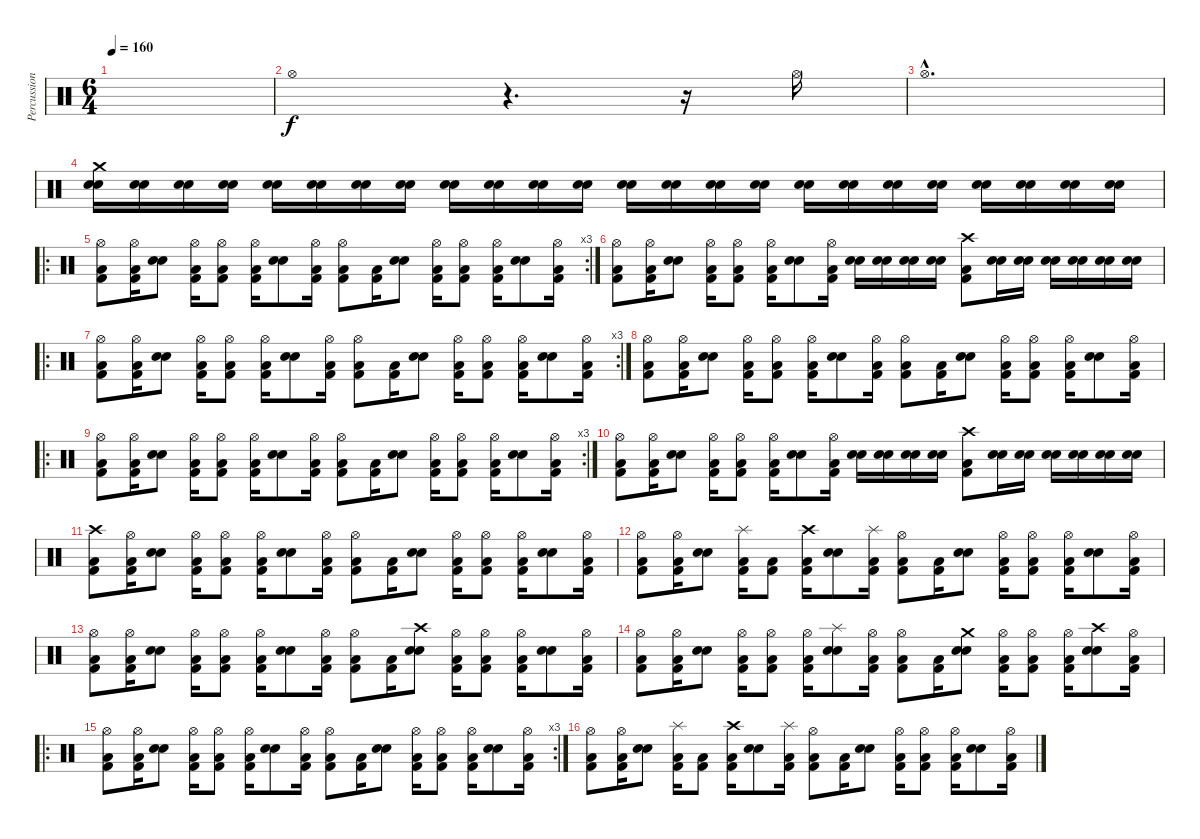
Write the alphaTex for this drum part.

\track ("Percussions" "Percussion") {instrument percussion}
\staff {score}
\articulation defaults
\ts (6 4)
\tempo 160
\clef neutral
\ks c
|
"Hi-Hat (open)".1 r.4{d} r.16 "Hi-Hat (open)".16 |
"Hi-Hat (open)"{hac}.1{d} |
("Crash medium (hit)" "Snare (hit) 2" "Electric Snare (hit)").16 ("Snare (hit) 2" "Electric Snare (hit)").16 ("Snare (hit) 2" "Electric Snare (hit)").16 ("Snare (hit) 2" "Electric Snare (hit)").16 ("Snare (hit) 2" "Electric Snare (hit)").16 ("Snare (hit) 2" "Electric Snare (hit)").16 ("Snare (hit) 2" "Electric Snare (hit)").16 ("Snare (hit) 2" "Electric Snare (hit)").16 ("Snare (hit) 2" "Electric Snare (hit)").16 ("Snare (hit) 2" "Electric Snare (hit)").16 ("Snare (hit) 2" "Electric Snare (hit)").16 ("Snare (hit) 2" "Electric Snare (hit)").16 ("Snare (hit) 2" "Electric Snare (hit)").16 ("Snare (hit) 2" "Electric Snare (hit)").16 ("Snare (hit) 2" "Electric Snare (hit)").16 ("Snare (hit) 2" "Electric Snare (hit)").16 ("Snare (hit) 2" "Electric Snare (hit)").16 ("Snare (hit) 2" "Electric Snare (hit)").16 ("Snare (hit) 2" "Electric Snare (hit)").16 ("Snare (hit) 2" "Electric Snare (hit)").16 ("Snare (hit) 2" "Electric Snare (hit)").16 ("Snare (hit) 2" "Electric Snare (hit)").16 ("Snare (hit) 2" "Electric Snare (hit)").16 ("Snare (hit) 2" "Electric Snare (hit)").16 |
\ro
\rc 3
("Hi-Hat (open)" "Kick (hit) 2" "Low Floor Tom (hit)").8 ("Hi-Hat (open)" "Kick (hit) 2" "Low Floor Tom (hit)").16 ("Snare (hit) 2" "Electric Snare (hit)").8 ("Hi-Hat (open)" "Kick (hit) 2" "Low Floor Tom (hit)").16 ("Hi-Hat (open)" "Kick (hit) 2" "Low Floor Tom (hit)").8 ("Hi-Hat (open)" "Kick (hit) 2" "Low Floor Tom (hit)").16 ("Snare (hit) 2" "Electric Snare (hit)").8 ("Hi-Hat (open)" "Kick (hit) 2" "Low Floor Tom (hit)").16 ("Hi-Hat (open)" "Kick (hit) 2" "Low Floor Tom (hit)").8 ("Kick (hit) 2" "Low Floor Tom (hit)").16 ("Snare (hit) 2" "Electric Snare (hit)").8 ("Hi-Hat (open)" "Kick (hit) 2" "Low Floor Tom (hit)").16 ("Hi-Hat (open)" "Kick (hit) 2" "Low Floor Tom (hit)").8 ("Hi-Hat (open)" "Kick (hit) 2" "Low Floor Tom (hit)").16 ("Snare (hit) 2" "Electric Snare (hit)").8 ("Hi-Hat (open)" "Kick (hit) 2" "Low Floor Tom (hit)").16 |
("Hi-Hat (open)" "Kick (hit) 2" "Low Floor Tom (hit)").8 ("Hi-Hat (open)" "Kick (hit) 2" "Low Floor Tom (hit)").16 ("Snare (hit) 2" "Electric Snare (hit)").8 ("Hi-Hat (open)" "Kick (hit) 2" "Low Floor Tom (hit)").16 ("Hi-Hat (open)" "Kick (hit) 2" "Low Floor Tom (hit)").8 ("Hi-Hat (open)" "Kick (hit) 2" "Low Floor Tom (hit)").16 ("Snare (hit) 2" "Electric Snare (hit)").8 ("Hi-Hat (open)" "Kick (hit) 2" "Low Floor Tom (hit)").16 ("Snare (hit) 2" "Electric Snare (hit)").16 ("Snare (hit) 2" "Electric Snare (hit)").16 ("Snare (hit) 2" "Electric Snare (hit)").16 ("Snare (hit) 2" "Electric Snare (hit)").16 ("Crash high (hit)" "Kick (hit) 2" "Low Floor Tom (hit)").8 ("Snare (hit) 2" "Snare (hit) 2").16 ("Snare (hit) 2" "Snare (hit) 2").16 ("Snare (hit) 2" "Snare (hit) 2").16 ("Snare (hit) 2" "Snare (hit) 2").16 ("Snare (hit) 2" "Snare (hit) 2").16 ("Snare (hit) 2" "Snare (hit) 2").16 |
\ro
\rc 3
("Hi-Hat (open)" "Kick (hit) 2" "Low Floor Tom (hit)").8 ("Hi-Hat (open)" "Kick (hit) 2" "Low Floor Tom (hit)").16 ("Snare (hit) 2" "Electric Snare (hit)").8 ("Hi-Hat (open)" "Kick (hit) 2" "Low Floor Tom (hit)").16 ("Hi-Hat (open)" "Kick (hit) 2" "Low Floor Tom (hit)").8 ("Hi-Hat (open)" "Kick (hit) 2" "Low Floor Tom (hit)").16 ("Snare (hit) 2" "Electric Snare (hit)").8 ("Hi-Hat (open)" "Kick (hit) 2" "Low Floor Tom (hit)").16 ("Hi-Hat (open)" "Kick (hit) 2" "Low Floor Tom (hit)").8 ("Kick (hit) 2" "Low Floor Tom (hit)").16 ("Snare (hit) 2" "Electric Snare (hit)").8 ("Hi-Hat (open)" "Kick (hit) 2" "Low Floor Tom (hit)").16 ("Hi-Hat (open)" "Kick (hit) 2" "Low Floor Tom (hit)").8 ("Hi-Hat (open)" "Kick (hit) 2" "Low Floor Tom (hit)").16 ("Snare (hit) 2" "Electric Snare (hit)").8 ("Hi-Hat (open)" "Kick (hit) 2" "Low Floor Tom (hit)").16 |
("Hi-Hat (open)" "Kick (hit) 2" "Low Floor Tom (hit)").8 ("Hi-Hat (open)" "Kick (hit) 2" "Low Floor Tom (hit)").16 ("Snare (hit) 2" "Electric Snare (hit)").8 ("Hi-Hat (open)" "Kick (hit) 2" "Low Floor Tom (hit)").16 ("Hi-Hat (open)" "Kick (hit) 2" "Low Floor Tom (hit)").8 ("Hi-Hat (open)" "Kick (hit) 2" "Low Floor Tom (hit)").16 ("Snare (hit) 2" "Electric Snare (hit)").8 ("Hi-Hat (open)" "Kick (hit) 2" "Low Floor Tom (hit)").16 ("Hi-Hat (open)" "Kick (hit) 2" "Low Floor Tom (hit)").8 ("Kick (hit) 2" "Low Floor Tom (hit)").16 ("Snare (hit) 2" "Electric Snare (hit)").8 ("Hi-Hat (open)" "Kick (hit) 2" "Low Floor Tom (hit)").16 ("Hi-Hat (open)" "Kick (hit) 2" "Low Floor Tom (hit)").8 ("Hi-Hat (open)" "Kick (hit) 2" "Low Floor Tom (hit)").16 ("Snare (hit) 2" "Electric Snare (hit)").8 ("Hi-Hat (open)" "Kick (hit) 2" "Low Floor Tom (hit)").16 |
\ro
\rc 3
("Hi-Hat (open)" "Kick (hit) 2" "Low Floor Tom (hit)").8 ("Hi-Hat (open)" "Kick (hit) 2" "Low Floor Tom (hit)").16 ("Snare (hit) 2" "Electric Snare (hit)").8 ("Hi-Hat (open)" "Kick (hit) 2" "Low Floor Tom (hit)").16 ("Hi-Hat (open)" "Kick (hit) 2" "Low Floor Tom (hit)").8 ("Hi-Hat (open)" "Kick (hit) 2" "Low Floor Tom (hit)").16 ("Snare (hit) 2" "Electric Snare (hit)").8 ("Hi-Hat (open)" "Kick (hit) 2" "Low Floor Tom (hit)").16 ("Hi-Hat (open)" "Kick (hit) 2" "Low Floor Tom (hit)").8 ("Kick (hit) 2" "Low Floor Tom (hit)").16 ("Snare (hit) 2" "Electric Snare (hit)").8 ("Hi-Hat (open)" "Kick (hit) 2" "Low Floor Tom (hit)").16 ("Hi-Hat (open)" "Kick (hit) 2" "Low Floor Tom (hit)").8 ("Hi-Hat (open)" "Kick (hit) 2" "Low Floor Tom (hit)").16 ("Snare (hit) 2" "Electric Snare (hit)").8 ("Hi-Hat (open)" "Kick (hit) 2" "Low Floor Tom (hit)").16 |
("Hi-Hat (open)" "Kick (hit) 2" "Low Floor Tom (hit)").8 ("Hi-Hat (open)" "Kick (hit) 2" "Low Floor Tom (hit)").16 ("Snare (hit) 2" "Electric Snare (hit)").8 ("Hi-Hat (open)" "Kick (hit) 2" "Low Floor Tom (hit)").16 ("Hi-Hat (open)" "Kick (hit) 2" "Low Floor Tom (hit)").8 ("Hi-Hat (open)" "Kick (hit) 2" "Low Floor Tom (hit)").16 ("Snare (hit) 2" "Electric Snare (hit)").8 ("Hi-Hat (open)" "Kick (hit) 2" "Low Floor Tom (hit)").16 ("Snare (hit) 2" "Electric Snare (hit)").16 ("Snare (hit) 2" "Electric Snare (hit)").16 ("Snare (hit) 2" "Electric Snare (hit)").16 ("Snare (hit) 2" "Electric Snare (hit)").16 ("Crash high (hit)" "Kick (hit) 2" "Low Floor Tom (hit)").8 ("Snare (hit) 2" "Snare (hit) 2").16 ("Snare (hit) 2" "Snare (hit) 2").16 ("Snare (hit) 2" "Snare (hit) 2").16 ("Snare (hit) 2" "Snare (hit) 2").16 ("Snare (hit) 2" "Snare (hit) 2").16 ("Snare (hit) 2" "Snare (hit) 2").16 |
("Crash high (hit)" "Kick (hit) 2" "Low Floor Tom (hit)").8 ("Hi-Hat (open)" "Kick (hit) 2" "Low Floor Tom (hit)").16 ("Snare (hit) 2" "Electric Snare (hit)").8 ("Hi-Hat (open)" "Kick (hit) 2" "Low Floor Tom (hit)").16 ("Hi-Hat (open)" "Kick (hit) 2" "Low Floor Tom (hit)").8 ("Hi-Hat (open)" "Kick (hit) 2" "Low Floor Tom (hit)").16 ("Snare (hit) 2" "Electric Snare (hit)").8 ("Hi-Hat (open)" "Kick (hit) 2" "Low Floor Tom (hit)").16 ("Hi-Hat (open)" "Kick (hit) 2" "Low Floor Tom (hit)").8 ("Kick (hit) 2" "Low Floor Tom (hit)").16 ("Snare (hit) 2" "Electric Snare (hit)").8 ("Hi-Hat (open)" "Kick (hit) 2" "Low Floor Tom (hit)").16 ("Hi-Hat (open)" "Kick (hit) 2" "Low Floor Tom (hit)").8 ("Hi-Hat (open)" "Kick (hit) 2" "Low Floor Tom (hit)").16 ("Snare (hit) 2" "Electric Snare (hit)").8 ("Hi-Hat (open)" "Kick (hit) 2" "Low Floor Tom (hit)").16 |
("Hi-Hat (open)" "Kick (hit) 2" "Low Floor Tom (hit)").8 ("Hi-Hat (open)" "Kick (hit) 2" "Low Floor Tom (hit)").16 ("Snare (hit) 2" "Electric Snare (hit)").8 ("Splash (hit)" "Kick (hit) 2" "Low Floor Tom (hit)").16 ("Kick (hit) 2" "Low Floor Tom (hit)").8 ("Crash high (hit)" "Kick (hit) 2" "Low Floor Tom (hit)").16 ("Snare (hit) 2" "Electric Snare (hit)").8 ("Splash (hit)" "Kick (hit) 2" "Low Floor Tom (hit)").16 ("Hi-Hat (open)" "Kick (hit) 2" "Low Floor Tom (hit)").8 ("Kick (hit) 2" "Low Floor Tom (hit)").16 ("Snare (hit) 2" "Electric Snare (hit)").8 ("Hi-Hat (open)" "Kick (hit) 2" "Low Floor Tom (hit)").16 ("Hi-Hat (open)" "Kick (hit) 2" "Low Floor Tom (hit)").8 ("Hi-Hat (open)" "Kick (hit) 2" "Low Floor Tom (hit)").16 ("Snare (hit) 2" "Electric Snare (hit)").8 ("Hi-Hat (open)" "Kick (hit) 2" "Low Floor Tom (hit)").16 |
("Hi-Hat (open)" "Kick (hit) 2" "Low Floor Tom (hit)").8 ("Hi-Hat (open)" "Kick (hit) 2" "Low Floor Tom (hit)").16 ("Snare (hit) 2" "Electric Snare (hit)").8 ("Hi-Hat (open)" "Kick (hit) 2" "Low Floor Tom (hit)").16 ("Hi-Hat (open)" "Kick (hit) 2" "Low Floor Tom (hit)").8 ("Hi-Hat (open)" "Kick (hit) 2" "Low Floor Tom (hit)").16 ("Snare (hit) 2" "Electric Snare (hit)").8 ("Hi-Hat (open)" "Kick (hit) 2" "Low Floor Tom (hit)").16 ("Hi-Hat (open)" "Kick (hit) 2" "Low Floor Tom (hit)").8 ("Kick (hit) 2" "Low Floor Tom (hit)").16 ("Crash high (hit)" "Snare (hit) 2" "Electric Snare (hit)").8 ("Hi-Hat (open)" "Kick (hit) 2" "Low Floor Tom (hit)").16 ("Hi-Hat (open)" "Kick (hit) 2" "Low Floor Tom (hit)").8 ("Hi-Hat (open)" "Kick (hit) 2" "Low Floor Tom (hit)").16 ("Snare (hit) 2" "Electric Snare (hit)").8 ("Hi-Hat (open)" "Kick (hit) 2" "Low Floor Tom (hit)").16 |
("Hi-Hat (open)" "Kick (hit) 2" "Low Floor Tom (hit)").8 ("Hi-Hat (open)" "Kick (hit) 2" "Low Floor Tom (hit)").16 ("Snare (hit) 2" "Electric Snare (hit)").8 ("Hi-Hat (open)" "Kick (hit) 2" "Low Floor Tom (hit)").16 ("Hi-Hat (open)" "Kick (hit) 2" "Low Floor Tom (hit)").8 ("Hi-Hat (open)" "Kick (hit) 2" "Low Floor Tom (hit)").16 ("Splash (hit)" "Snare (hit) 2" "Electric Snare (hit)").8 ("Hi-Hat (open)" "Kick (hit) 2" "Low Floor Tom (hit)").16 ("Hi-Hat (open)" "Kick (hit) 2" "Low Floor Tom (hit)").8 ("Kick (hit) 2" "Low Floor Tom (hit)").16 ("Crash medium (hit)" "Snare (hit) 2" "Electric Snare (hit)").8 ("Hi-Hat (open)" "Kick (hit) 2" "Low Floor Tom (hit)").16 ("Hi-Hat (open)" "Kick (hit) 2" "Low Floor Tom (hit)").8 ("Hi-Hat (open)" "Kick (hit) 2" "Low Floor Tom (hit)").16 ("Crash high (hit)" "Snare (hit) 2" "Electric Snare (hit)").8 ("Hi-Hat (open)" "Kick (hit) 2" "Low Floor Tom (hit)").16 |
\ro
\rc 3
("Hi-Hat (open)" "Kick (hit) 2" "Low Floor Tom (hit)").8 ("Hi-Hat (open)" "Kick (hit) 2" "Low Floor Tom (hit)").16 ("Snare (hit) 2" "Electric Snare (hit)").8 ("Hi-Hat (open)" "Kick (hit) 2" "Low Floor Tom (hit)").16 ("Hi-Hat (open)" "Kick (hit) 2" "Low Floor Tom (hit)").8 ("Hi-Hat (open)" "Kick (hit) 2" "Low Floor Tom (hit)").16 ("Snare (hit) 2" "Electric Snare (hit)").8 ("Hi-Hat (open)" "Kick (hit) 2" "Low Floor Tom (hit)").16 ("Hi-Hat (open)" "Kick (hit) 2" "Low Floor Tom (hit)").8 ("Kick (hit) 2" "Low Floor Tom (hit)").16 ("Snare (hit) 2" "Electric Snare (hit)").8 ("Hi-Hat (open)" "Kick (hit) 2" "Low Floor Tom (hit)").16 ("Hi-Hat (open)" "Kick (hit) 2" "Low Floor Tom (hit)").8 ("Hi-Hat (open)" "Kick (hit) 2" "Low Floor Tom (hit)").16 ("Snare (hit) 2" "Electric Snare (hit)").8 ("Hi-Hat (open)" "Kick (hit) 2" "Low Floor Tom (hit)").16 |
("Hi-Hat (open)" "Kick (hit) 2" "Low Floor Tom (hit)").8 ("Hi-Hat (open)" "Kick (hit) 2" "Low Floor Tom (hit)").16 ("Snare (hit) 2" "Electric Snare (hit)").8 ("Splash (hit)" "Kick (hit) 2" "Low Floor Tom (hit)").16 ("Kick (hit) 2" "Low Floor Tom (hit)").8 ("Crash high (hit)" "Kick (hit) 2" "Low Floor Tom (hit)").16 ("Snare (hit) 2" "Electric Snare (hit)").8 ("Splash (hit)" "Kick (hit) 2" "Low Floor Tom (hit)").16 ("Hi-Hat (open)" "Kick (hit) 2" "Low Floor Tom (hit)").8 ("Kick (hit) 2" "Low Floor Tom (hit)").16 ("Snare (hit) 2" "Electric Snare (hit)").8 ("Hi-Hat (open)" "Kick (hit) 2" "Low Floor Tom (hit)").16 ("Hi-Hat (open)" "Kick (hit) 2" "Low Floor Tom (hit)").8 ("Hi-Hat (open)" "Kick (hit) 2" "Low Floor Tom (hit)").16 ("Snare (hit) 2" "Electric Snare (hit)").8 ("Hi-Hat (open)" "Kick (hit) 2" "Low Floor Tom (hit)").16
